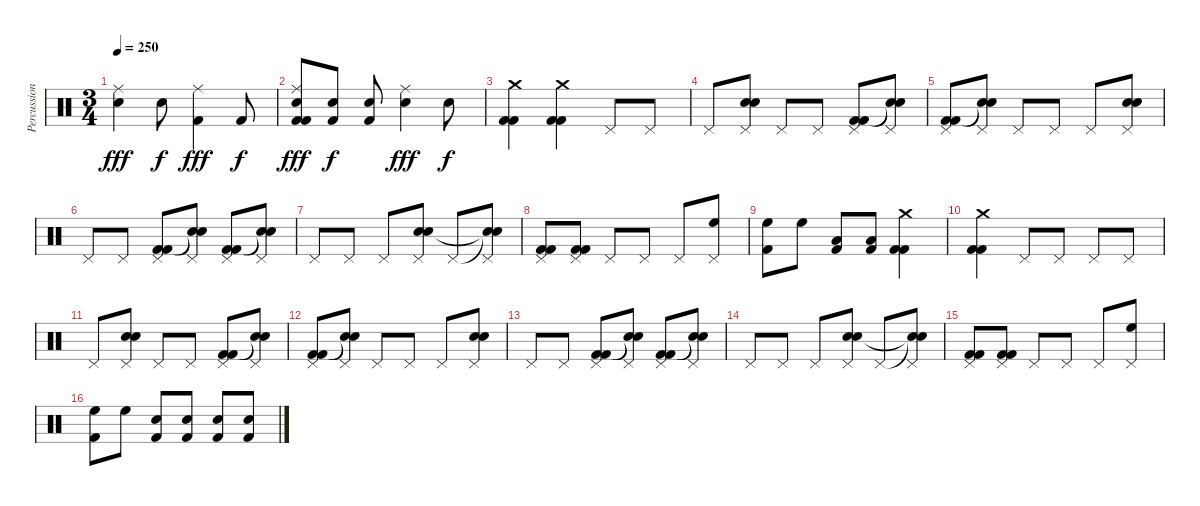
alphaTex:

\track ("Percussion" "Percussion") {instrument percussion}
\staff {score}
\articulation defaults
\ts (3 4)
\tempo 250
\clef neutral
\ks c
("Snare (hit) 2" "Ride (middle)").4{dy fff} "Snare (hit) 2".8{dy f} ("Ride (middle)" "Kick (hit) 2").4{dy fff} "Kick (hit) 2".8{dy f} |
("Ride (middle)" "Snare (hit) 2" "Kick (hit) 2" "Kick (hit) 2").8{dy fff} ("Snare (hit) 2" "Kick (hit) 2").8{dy f} ("Snare (hit) 2" "Kick (hit) 2").8 ("Snare (hit) 2" "Ride (middle)").4{dy fff} "Snare (hit) 2".8{dy f} |
("Crash medium (hit)" "Kick (hit) 2" "Kick (hit) 2").4 ("Crash medium (hit)" "Kick (hit) 2" "Kick (hit) 2").4 "Pedal Hi-Hat (hit)".8 "Pedal Hi-Hat (hit)".8 |
"Pedal Hi-Hat (hit)".8 ("Snare (hit) 2" "Snare (hit) 2" "Pedal Hi-Hat (hit)").8 "Pedal Hi-Hat (hit)".8 "Pedal Hi-Hat (hit)".8 ("Pedal Hi-Hat (hit)" "Kick (hit) 2" "Kick (hit) 2").8 ("Pedal Hi-Hat (hit)" "Snare (hit)"{t} "Snare (hit)"{t}).8 |
("Pedal Hi-Hat (hit)" "Kick (hit) 2" "Kick (hit) 2").8 ("Pedal Hi-Hat (hit)" "Snare (hit)"{t} "Snare (hit)"{t}).8 "Pedal Hi-Hat (hit)".8 "Pedal Hi-Hat (hit)".8 "Pedal Hi-Hat (hit)".8 ("Snare (hit) 2" "Snare (hit) 2" "Pedal Hi-Hat (hit)").8 |
"Pedal Hi-Hat (hit)".8 "Pedal Hi-Hat (hit)".8 ("Pedal Hi-Hat (hit)" "Kick (hit) 2" "Kick (hit) 2").8 ("Pedal Hi-Hat (hit)" "Snare (hit)"{t} "Snare (hit)"{t}).8 ("Pedal Hi-Hat (hit)" "Kick (hit) 2" "Kick (hit) 2").8 ("Pedal Hi-Hat (hit)" "Snare (hit)"{t} "Snare (hit)"{t}).8 |
"Pedal Hi-Hat (hit)".8 "Pedal Hi-Hat (hit)".8 "Pedal Hi-Hat (hit)".8 ("Snare (hit) 2" "Snare (hit) 2" "Pedal Hi-Hat (hit)").8 "Pedal Hi-Hat (hit)".8 ("Snare (hit)"{t} "Snare (hit)"{t} "Pedal Hi-Hat (hit)").8 |
("Pedal Hi-Hat (hit)" "Kick (hit) 2" "Kick (hit) 2").8 ("Pedal Hi-Hat (hit)" "Kick (hit) 2" "Kick (hit) 2").8 "Pedal Hi-Hat (hit)".8 "Pedal Hi-Hat (hit)".8 "Pedal Hi-Hat (hit)".8 ("High Floor Tom (hit)" "Pedal Hi-Hat (hit)").8 |
("High Floor Tom (hit)" "Kick (hit) 2").8 "High Floor Tom (hit)".8 ("Low Tom (hit)" "Kick (hit) 2").8 ("Low Tom (hit)" "Kick (hit) 2").8 ("Crash medium (hit)" "Kick (hit) 2" "Kick (hit) 2").4 |
("Crash medium (hit)" "Kick (hit) 2" "Kick (hit) 2").4 "Pedal Hi-Hat (hit)".8 "Pedal Hi-Hat (hit)".8 "Pedal Hi-Hat (hit)".8 "Pedal Hi-Hat (hit)".8 |
"Pedal Hi-Hat (hit)".8 ("Snare (hit) 2" "Snare (hit) 2" "Pedal Hi-Hat (hit)").8 "Pedal Hi-Hat (hit)".8 "Pedal Hi-Hat (hit)".8 ("Pedal Hi-Hat (hit)" "Kick (hit) 2" "Kick (hit) 2").8 ("Pedal Hi-Hat (hit)" "Snare (hit)"{t} "Snare (hit)"{t}).8 |
("Pedal Hi-Hat (hit)" "Kick (hit) 2" "Kick (hit) 2").8 ("Pedal Hi-Hat (hit)" "Snare (hit)"{t} "Snare (hit)"{t}).8 "Pedal Hi-Hat (hit)".8 "Pedal Hi-Hat (hit)".8 "Pedal Hi-Hat (hit)".8 ("Snare (hit) 2" "Snare (hit) 2" "Pedal Hi-Hat (hit)").8 |
"Pedal Hi-Hat (hit)".8 "Pedal Hi-Hat (hit)".8 ("Pedal Hi-Hat (hit)" "Kick (hit) 2" "Kick (hit) 2").8 ("Pedal Hi-Hat (hit)" "Snare (hit)"{t} "Snare (hit)"{t}).8 ("Pedal Hi-Hat (hit)" "Kick (hit) 2" "Kick (hit) 2").8 ("Pedal Hi-Hat (hit)" "Snare (hit)"{t} "Snare (hit)"{t}).8 |
"Pedal Hi-Hat (hit)".8 "Pedal Hi-Hat (hit)".8 "Pedal Hi-Hat (hit)".8 ("Snare (hit) 2" "Snare (hit) 2" "Pedal Hi-Hat (hit)").8 "Pedal Hi-Hat (hit)".8 ("Snare (hit)"{t} "Snare (hit)"{t} "Pedal Hi-Hat (hit)").8 |
("Pedal Hi-Hat (hit)" "Kick (hit) 2" "Kick (hit) 2").8 ("Pedal Hi-Hat (hit)" "Kick (hit) 2" "Kick (hit) 2").8 "Pedal Hi-Hat (hit)".8 "Pedal Hi-Hat (hit)".8 "Pedal Hi-Hat (hit)".8 ("High Floor Tom (hit)" "Pedal Hi-Hat (hit)").8 |
("High Floor Tom (hit)" "Kick (hit) 2").8 "High Floor Tom (hit)".8 ("Snare (hit) 2" "Kick (hit) 2").8 ("Snare (hit) 2" "Kick (hit) 2").8 ("Snare (hit) 2" "Kick (hit) 2").8 ("Snare (hit) 2" "Kick (hit) 2").8
